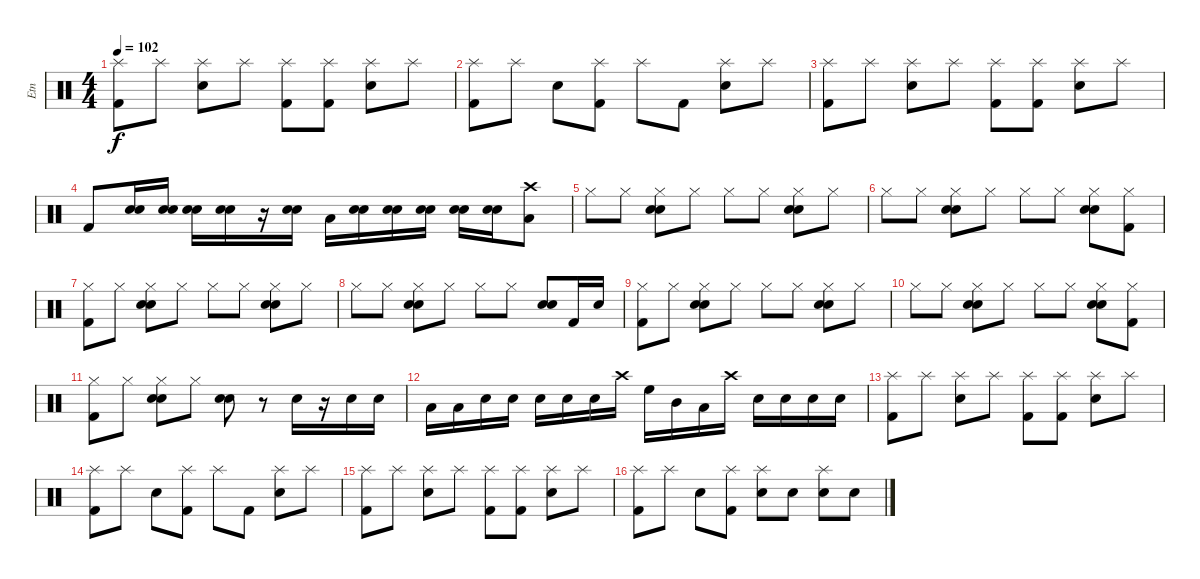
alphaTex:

\track ("Etn" "Etn") {instrument percussion}
\staff {score}
\articulation defaults
\ts (4 4)
\tempo 102
\clef neutral
\ks c
("Splash (hit)" "Kick (hit) 2").8{dy f} "Splash (hit)".8 ("Splash (hit)" "Snare (hit) 2").8 "Splash (hit)".8 ("Splash (hit)" "Kick (hit) 2").8 ("Splash (hit)" "Kick (hit) 2").8 ("Splash (hit)" "Snare (hit) 2").8 "Splash (hit)".8 |
("Splash (hit)" "Kick (hit) 2").8 "Splash (hit)".8 "Snare (hit) 2".8 ("Splash (hit)" "Kick (hit) 2").8 "Splash (hit)".8 "Kick (hit) 2".8 ("Splash (hit)" "Snare (hit) 2").8 "Splash (hit)".8 |
("Splash (hit)" "Kick (hit) 2").8 "Splash (hit)".8 ("Splash (hit)" "Snare (hit) 2").8 "Splash (hit)".8 ("Splash (hit)" "Kick (hit) 2").8 ("Splash (hit)" "Kick (hit) 2").8 ("Splash (hit)" "Snare (hit) 2").8 "Splash (hit)".8 |
"Kick (hit) 2".8 ("Snare (hit) 2" "Snare (hit) 2").16 ("Snare (hit) 2" "Snare (hit) 2").16 ("Snare (hit) 2" "Snare (hit) 2").16 ("Snare (hit) 2" "Snare (hit) 2").16 r.16 ("Snare (hit) 2" "Snare (hit) 2").16 "Low Tom (hit)".16 ("Snare (hit) 2" "Snare (hit) 2").16 ("Snare (hit) 2" "Snare (hit) 2").16 ("Snare (hit) 2" "Snare (hit) 2").16 ("Snare (hit) 2" "Snare (hit) 2").16 ("Snare (hit) 2" "Snare (hit) 2").16 ("Crash high (hit)" "Low Tom (hit)").8 |
"Hi-Hat (closed)"{x}.8 "Hi-Hat (closed)"{x}.8 ("Hi-Hat (closed)"{x} "Snare (hit) 2" "Snare (hit) 2").8 "Hi-Hat (closed)"{x}.8 "Hi-Hat (closed)"{x}.8 "Hi-Hat (closed)"{x}.8 ("Hi-Hat (closed)"{x} "Snare (hit) 2" "Snare (hit) 2").8 "Hi-Hat (closed)"{x}.8 |
"Hi-Hat (closed)"{x}.8 "Hi-Hat (closed)"{x}.8 ("Hi-Hat (closed)"{x} "Snare (hit) 2" "Snare (hit) 2").8 "Hi-Hat (closed)"{x}.8 "Hi-Hat (closed)"{x}.8 "Hi-Hat (closed)"{x}.8 ("Hi-Hat (closed)"{x} "Snare (hit) 2" "Snare (hit) 2").8 ("Hi-Hat (closed)"{x} "Kick (hit) 2").8 |
("Hi-Hat (closed)"{x} "Kick (hit) 2").8 "Hi-Hat (closed)"{x}.8 ("Hi-Hat (closed)"{x} "Snare (hit) 2" "Snare (hit) 2").8 "Hi-Hat (closed)"{x}.8 "Hi-Hat (closed)"{x}.8 "Hi-Hat (closed)"{x}.8 ("Hi-Hat (closed)"{x} "Snare (hit) 2" "Snare (hit) 2").8 "Hi-Hat (closed)"{x}.8 |
"Hi-Hat (closed)"{x}.8 "Hi-Hat (closed)"{x}.8 ("Hi-Hat (closed)"{x} "Snare (hit) 2" "Snare (hit) 2").8 "Hi-Hat (closed)"{x}.8 "Hi-Hat (closed)"{x}.8 "Hi-Hat (closed)"{x}.8 ("Snare (hit) 2" "Snare (hit) 2").8 "Kick (hit) 2".16 "Snare (hit) 2".16 |
("Hi-Hat (closed)"{x} "Kick (hit) 2").8 "Hi-Hat (closed)"{x}.8 ("Hi-Hat (closed)"{x} "Snare (hit) 2" "Snare (hit) 2").8 "Hi-Hat (closed)"{x}.8 "Hi-Hat (closed)"{x}.8 "Hi-Hat (closed)"{x}.8 ("Hi-Hat (closed)"{x} "Snare (hit) 2" "Snare (hit) 2").8 "Hi-Hat (closed)"{x}.8 |
"Hi-Hat (closed)"{x}.8 "Hi-Hat (closed)"{x}.8 ("Hi-Hat (closed)"{x} "Snare (hit) 2" "Snare (hit) 2").8 "Hi-Hat (closed)"{x}.8 "Hi-Hat (closed)"{x}.8 "Hi-Hat (closed)"{x}.8 ("Hi-Hat (closed)"{x} "Snare (hit) 2" "Snare (hit) 2").8 ("Hi-Hat (closed)"{x} "Kick (hit) 2").8 |
("Hi-Hat (closed)"{x} "Kick (hit) 2").8 "Hi-Hat (closed)"{x}.8 ("Hi-Hat (closed)"{x} "Snare (hit) 2" "Snare (hit) 2").8 "Hi-Hat (closed)"{x}.8 ("Snare (hit) 2" "Snare (hit) 2").8 r.8 "Snare (hit) 2".16 r.16 "Snare (hit) 2".16 "Snare (hit) 2".16 |
"Low Tom (hit)".16 "Low Tom (hit)".16 "Snare (hit) 2".16 "Snare (hit) 2".16 "Snare (hit) 2".16 "Snare (hit) 2".16 "Snare (hit) 2".16 "Crash high (hit)".16 "High Floor Tom (hit)".16 "Mid Tom (hit)".16 "Low Tom (hit)".16 "Crash high (hit)".16 "Snare (hit) 2".16 "Snare (hit) 2".16 "Snare (hit) 2".16 "Snare (hit) 2".16 |
("Splash (hit)" "Kick (hit) 2").8 "Splash (hit)".8 ("Splash (hit)" "Snare (hit) 2").8 "Splash (hit)".8 ("Splash (hit)" "Kick (hit) 2").8 ("Splash (hit)" "Kick (hit) 2").8 ("Splash (hit)" "Snare (hit) 2").8 "Splash (hit)".8 |
("Splash (hit)" "Kick (hit) 2").8 "Splash (hit)".8 "Snare (hit) 2".8 ("Splash (hit)" "Kick (hit) 2").8 "Splash (hit)".8 "Kick (hit) 2".8 ("Splash (hit)" "Snare (hit) 2").8 "Splash (hit)".8 |
("Splash (hit)" "Kick (hit) 2").8 "Splash (hit)".8 ("Splash (hit)" "Snare (hit) 2").8 "Splash (hit)".8 ("Splash (hit)" "Kick (hit) 2").8 ("Splash (hit)" "Kick (hit) 2").8 ("Splash (hit)" "Snare (hit) 2").8 "Splash (hit)".8 |
("Splash (hit)" "Kick (hit) 2").8 "Splash (hit)".8 "Snare (hit) 2".8 ("Splash (hit)" "Kick (hit) 2").8 ("Splash (hit)" "Snare (hit) 2").8 "Snare (hit) 2".8 ("Splash (hit)" "Snare (hit) 2").8 "Snare (hit) 2".8
